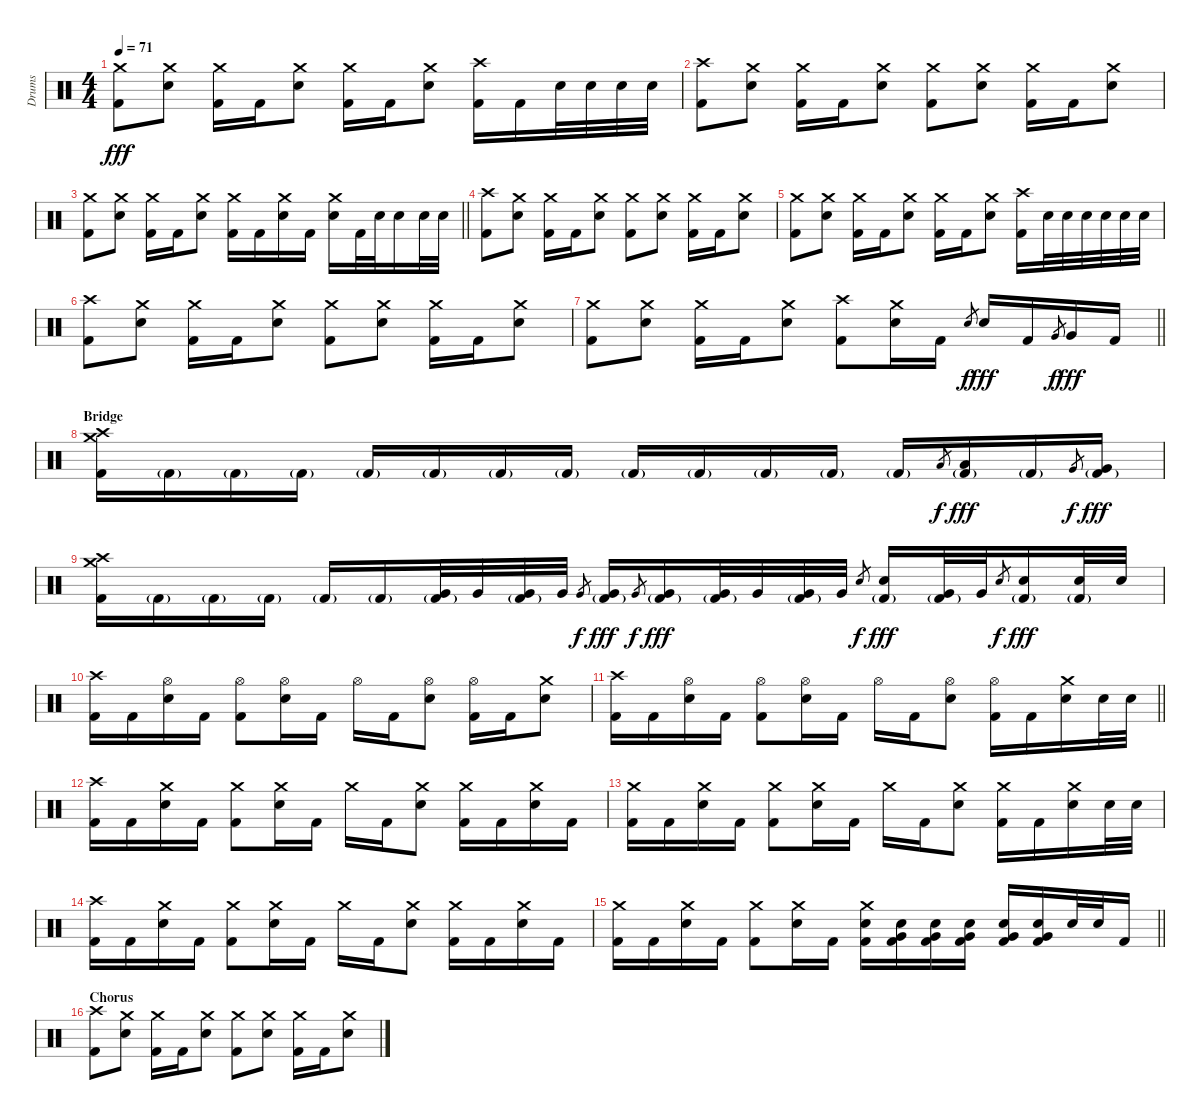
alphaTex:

\track ("Drums" "Drums") {instrument percussion}
\staff {score}
\articulation defaults
\ts (4 4)
\tempo 71
\clef neutral
\ks c
("Crash medium (hit)" "Kick (hit) 2").8{dy fff} ("Crash medium (hit)" "Snare (hit) 2").8 ("Crash medium (hit)" "Kick (hit) 2").16 "Kick (hit) 2".16 ("Crash medium (hit)" "Snare (hit) 2").8 ("Crash medium (hit)" "Kick (hit) 2").16 "Kick (hit) 2".16 ("Crash medium (hit)" "Snare (hit) 2").8 ("Crash high (hit)" "Kick (hit) 2").16 "Kick (hit) 2".16 "Snare (hit) 2".32 "Snare (hit) 2".32 "Snare (hit) 2".32 "Snare (hit) 2".32 |
("Crash high (hit)" "Kick (hit) 2").8 ("Crash medium (hit)" "Snare (hit) 2").8 ("Crash medium (hit)" "Kick (hit) 2").16 "Kick (hit) 2".16 ("Crash medium (hit)" "Snare (hit) 2").8 ("Crash medium (hit)" "Kick (hit) 2").8 ("Crash medium (hit)" "Snare (hit) 2").8 ("Crash medium (hit)" "Kick (hit) 2").16 "Kick (hit) 2".16 ("Crash medium (hit)" "Snare (hit) 2").8 |
\barLineRight lightlight
("Crash medium (hit)" "Kick (hit) 2").8 ("Crash medium (hit)" "Snare (hit) 2").8 ("Crash medium (hit)" "Kick (hit) 2").16 "Kick (hit) 2".16 ("Crash medium (hit)" "Snare (hit) 2").8 ("Crash medium (hit)" "Kick (hit) 2").16 "Kick (hit) 2".16 ("Crash medium (hit)" "Snare (hit) 2").16 "Kick (hit) 2".16 ("Crash medium (hit)" "Snare (hit) 2").16 "Kick (hit) 2".32 "Snare (hit) 2".32 "Snare (hit) 2".16 "Snare (hit) 2".32 "Snare (hit) 2".32 |
("Crash high (hit)" "Kick (hit) 2").8 ("Crash medium (hit)" "Snare (hit) 2").8 ("Crash medium (hit)" "Kick (hit) 2").16 "Kick (hit) 2".16 ("Crash medium (hit)" "Snare (hit) 2").8 ("Crash medium (hit)" "Kick (hit) 2").8 ("Crash medium (hit)" "Snare (hit) 2").8 ("Crash medium (hit)" "Kick (hit) 2").16 "Kick (hit) 2".16 ("Crash medium (hit)" "Snare (hit) 2").8 |
("Crash medium (hit)" "Kick (hit) 2").8 ("Crash medium (hit)" "Snare (hit) 2").8 ("Crash medium (hit)" "Kick (hit) 2").16 "Kick (hit) 2".16 ("Crash medium (hit)" "Snare (hit) 2").8 ("Crash medium (hit)" "Kick (hit) 2").16 "Kick (hit) 2".16 ("Crash medium (hit)" "Snare (hit) 2").8 ("Crash high (hit)" "Kick (hit) 2").16 "Snare (hit) 2".32 "Snare (hit) 2".32 "Snare (hit) 2".32 "Snare (hit) 2".32 "Snare (hit) 2".32 "Snare (hit) 2".32 |
("Crash high (hit)" "Kick (hit) 2").8 ("Crash medium (hit)" "Snare (hit) 2").8 ("Crash medium (hit)" "Kick (hit) 2").16 "Kick (hit) 2".16 ("Crash medium (hit)" "Snare (hit) 2").8 ("Crash medium (hit)" "Kick (hit) 2").8 ("Crash medium (hit)" "Snare (hit) 2").8 ("Crash medium (hit)" "Kick (hit) 2").16 "Kick (hit) 2".16 ("Crash medium (hit)" "Snare (hit) 2").8 |
\barLineRight lightlight
("Crash medium (hit)" "Kick (hit) 2").8 ("Crash medium (hit)" "Snare (hit) 2").8 ("Crash medium (hit)" "Kick (hit) 2").16 "Kick (hit) 2".16 ("Crash medium (hit)" "Snare (hit) 2").8 ("Crash high (hit)" "Kick (hit) 2").8 ("Crash medium (hit)" "Snare (hit) 2").16 "Kick (hit) 2".16 "Snare (hit) 2".8{gr dy f} "Snare (hit) 2".16{dy fff} "Kick (hit) 2".16 "Very Low Tom (hit)".8{gr dy f} "Very Low Tom (hit)".16{dy fff} "Kick (hit) 2".16 |
\section ("" "Bridge")
("Crash high (hit)" "Crash medium (hit)" "Kick (hit) 2").16 "Kick (hit) 2"{g}.16 "Kick (hit) 2"{g}.16 "Kick (hit) 2"{g}.16 "Kick (hit) 2"{g}.16 "Kick (hit) 2"{g}.16 "Kick (hit) 2"{g}.16 "Kick (hit) 2"{g}.16 "Kick (hit) 2"{g}.16 "Kick (hit) 2"{g}.16 "Kick (hit) 2"{g}.16 "Kick (hit) 2"{g}.16 "Kick (hit) 2"{g}.16 "Low Tom (hit)".8{gr dy f} ("Low Tom (hit)" "Kick (hit) 2"{g}).16{dy fff} "Kick (hit) 2"{g}.16 "Very Low Tom (hit)".8{gr dy f} ("Very Low Tom (hit)" "Kick (hit) 2"{g}).16{dy fff} |
("Crash high (hit)" "Crash medium (hit)" "Kick (hit) 2").16 "Kick (hit) 2"{g}.16 "Kick (hit) 2"{g}.16 "Kick (hit) 2"{g}.16 "Kick (hit) 2"{g}.16 "Kick (hit) 2"{g}.16 ("Very Low Tom (hit)" "Kick (hit) 2"{g}).32 "Very Low Tom (hit)".32 ("Very Low Tom (hit)" "Kick (hit) 2"{g}).32 "Very Low Tom (hit)".32 "Very Low Tom (hit)".8{gr dy f} ("Very Low Tom (hit)" "Kick (hit) 2"{g}).16{dy fff} "Very Low Tom (hit)".8{gr dy f} ("Very Low Tom (hit)" "Kick (hit) 2"{g}).16{dy fff} ("Very Low Tom (hit)" "Kick (hit) 2"{g}).32 "Very Low Tom (hit)".32 ("Very Low Tom (hit)" "Kick (hit) 2"{g}).32 "Very Low Tom (hit)".32 "Snare (hit) 2".8{gr dy f} ("Snare (hit) 2" "Kick (hit) 2"{g}).16{dy fff} ("Very Low Tom (hit)" "Kick (hit) 2"{g}).32 "Very Low Tom (hit)".32 "Snare (hit) 2".8{gr dy f} ("Snare (hit) 2" "Kick (hit) 2"{g}).16{dy fff} ("Snare (hit) 2" "Kick (hit) 2"{g}).32 "Snare (hit) 2".32 |
("Crash high (hit)" "Kick (hit) 2").16 "Kick (hit) 2".16 ("Hi-Hat (open)" "Snare (hit) 2").16 "Kick (hit) 2".16 ("Hi-Hat (open)" "Kick (hit) 2").8 ("Hi-Hat (open)" "Snare (hit) 2").16 "Kick (hit) 2".16 "Hi-Hat (open)".16 "Kick (hit) 2".16 ("Hi-Hat (open)" "Snare (hit) 2").8 ("Hi-Hat (open)" "Kick (hit) 2").16 "Kick (hit) 2".16 ("Crash medium (hit)" "Snare (hit) 2").8 |
\barLineRight lightlight
("Crash high (hit)" "Kick (hit) 2").16 "Kick (hit) 2".16 ("Hi-Hat (open)" "Snare (hit) 2").16 "Kick (hit) 2".16 ("Hi-Hat (open)" "Kick (hit) 2").8 ("Hi-Hat (open)" "Snare (hit) 2").16 "Kick (hit) 2".16 "Hi-Hat (open)".16 "Kick (hit) 2".16 ("Hi-Hat (open)" "Snare (hit) 2").8 ("Hi-Hat (open)" "Kick (hit) 2").16 "Kick (hit) 2".16 ("Crash medium (hit)" "Snare (hit) 2").16 "Snare (hit) 2".32 "Snare (hit) 2".32 |
("Crash high (hit)" "Kick (hit) 2").16 "Kick (hit) 2".16 ("Crash medium (hit)" "Snare (hit) 2").16 "Kick (hit) 2".16 ("Crash medium (hit)" "Kick (hit) 2").8 ("Crash medium (hit)" "Snare (hit) 2").16 "Kick (hit) 2".16 "Crash medium (hit)".16 "Kick (hit) 2".16 ("Crash medium (hit)" "Snare (hit) 2").8 ("Crash medium (hit)" "Kick (hit) 2").16 "Kick (hit) 2".16 ("Crash medium (hit)" "Snare (hit) 2").16 "Kick (hit) 2".16 |
("Crash medium (hit)" "Kick (hit) 2").16 "Kick (hit) 2".16 ("Crash medium (hit)" "Snare (hit) 2").16 "Kick (hit) 2".16 ("Crash medium (hit)" "Kick (hit) 2").8 ("Crash medium (hit)" "Snare (hit) 2").16 "Kick (hit) 2".16 "Crash medium (hit)".16 "Kick (hit) 2".16 ("Crash medium (hit)" "Snare (hit) 2").8 ("Crash medium (hit)" "Kick (hit) 2").16 "Kick (hit) 2".16 ("Crash medium (hit)" "Snare (hit) 2").16 "Snare (hit) 2".32 "Snare (hit) 2".32 |
("Crash high (hit)" "Kick (hit) 2").16 "Kick (hit) 2".16 ("Crash medium (hit)" "Snare (hit) 2").16 "Kick (hit) 2".16 ("Crash medium (hit)" "Kick (hit) 2").8 ("Crash medium (hit)" "Snare (hit) 2").16 "Kick (hit) 2".16 "Crash medium (hit)".16 "Kick (hit) 2".16 ("Crash medium (hit)" "Snare (hit) 2").8 ("Crash medium (hit)" "Kick (hit) 2").16 "Kick (hit) 2".16 ("Crash medium (hit)" "Snare (hit) 2").16 "Kick (hit) 2".16 |
\barLineRight lightlight
("Crash medium (hit)" "Kick (hit) 2").16 "Kick (hit) 2".16 ("Crash medium (hit)" "Snare (hit) 2").16 "Kick (hit) 2".16 ("Crash medium (hit)" "Kick (hit) 2").8 ("Crash medium (hit)" "Snare (hit) 2").16 "Kick (hit) 2".16 ("Crash medium (hit)" "Snare (hit) 2" "Kick (hit) 2").16 ("Snare (hit) 2" "Very Low Tom (hit)" "Kick (hit) 2").16 ("Snare (hit) 2" "Very Low Tom (hit)" "Kick (hit) 2").16 ("Snare (hit) 2" "Very Low Tom (hit)" "Kick (hit) 2").16 ("Snare (hit) 2" "Very Low Tom (hit)" "Kick (hit) 2").16 ("Snare (hit) 2" "Very Low Tom (hit)" "Kick (hit) 2").16 "Snare (hit) 2".32 "Snare (hit) 2".32 "Kick (hit) 2".16 |
\section ("" "Chorus")
("Crash high (hit)" "Kick (hit) 2").8 ("Crash medium (hit)" "Snare (hit) 2").8 ("Crash medium (hit)" "Kick (hit) 2").16 "Kick (hit) 2".16 ("Crash medium (hit)" "Snare (hit) 2").8 ("Crash medium (hit)" "Kick (hit) 2").8 ("Crash medium (hit)" "Snare (hit) 2").8 ("Crash medium (hit)" "Kick (hit) 2").16 "Kick (hit) 2".16 ("Crash medium (hit)" "Snare (hit) 2").8
